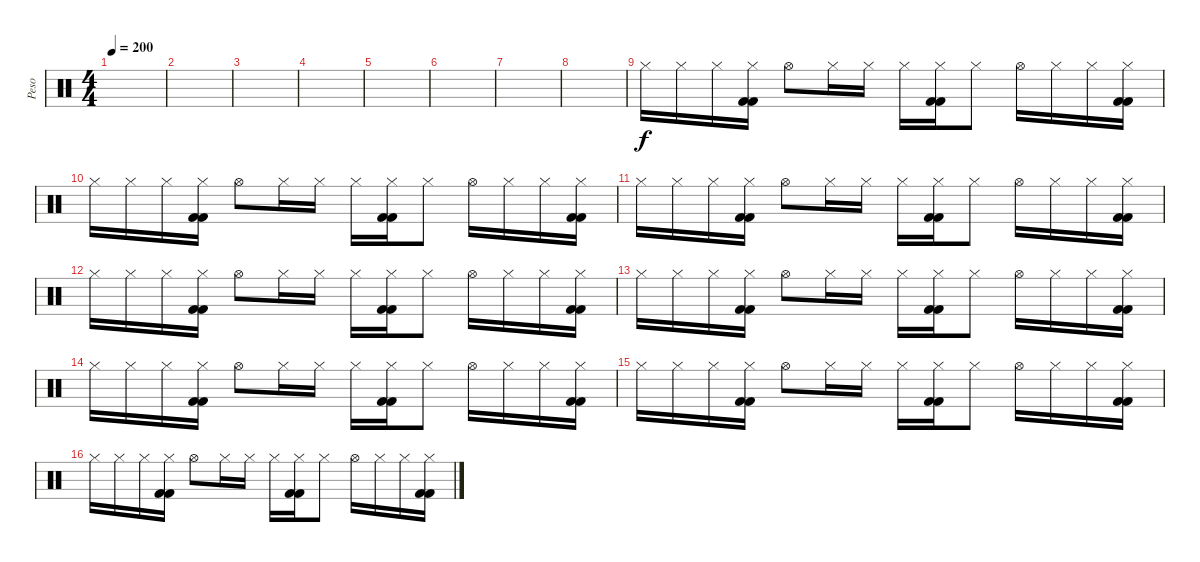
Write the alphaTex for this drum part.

\track ("Peso" "Peso") {instrument percussion}
\staff {score}
\articulation defaults
\ts (4 4)
\tempo 200
\clef neutral
\ks c
|
|
|
|
|
|
|
|
"Hi-Hat (closed)".16 "Hi-Hat (closed)".16 "Hi-Hat (closed)".16 ("Hi-Hat (closed)" "Kick (hit) 2" "Kick (hit) 2").16 "Hi-Hat (open)".8 "Hi-Hat (closed)".16 "Hi-Hat (closed)".16 "Hi-Hat (closed)".16 ("Hi-Hat (closed)" "Kick (hit) 2" "Kick (hit) 2").16 "Hi-Hat (closed)".8 "Hi-Hat (open)".16 "Hi-Hat (closed)".16 "Hi-Hat (closed)".16 ("Hi-Hat (closed)" "Kick (hit) 2" "Kick (hit) 2").16 |
"Hi-Hat (closed)".16 "Hi-Hat (closed)".16 "Hi-Hat (closed)".16 ("Hi-Hat (closed)" "Kick (hit) 2" "Kick (hit) 2").16 "Hi-Hat (open)".8 "Hi-Hat (closed)".16 "Hi-Hat (closed)".16 "Hi-Hat (closed)".16 ("Hi-Hat (closed)" "Kick (hit) 2" "Kick (hit) 2").16 "Hi-Hat (closed)".8 "Hi-Hat (open)".16 "Hi-Hat (closed)".16 "Hi-Hat (closed)".16 ("Hi-Hat (closed)" "Kick (hit) 2" "Kick (hit) 2").16 |
"Hi-Hat (closed)".16 "Hi-Hat (closed)".16 "Hi-Hat (closed)".16 ("Hi-Hat (closed)" "Kick (hit) 2" "Kick (hit) 2").16 "Hi-Hat (open)".8 "Hi-Hat (closed)".16 "Hi-Hat (closed)".16 "Hi-Hat (closed)".16 ("Hi-Hat (closed)" "Kick (hit) 2" "Kick (hit) 2").16 "Hi-Hat (closed)".8 "Hi-Hat (open)".16 "Hi-Hat (closed)".16 "Hi-Hat (closed)".16 ("Hi-Hat (closed)" "Kick (hit) 2" "Kick (hit) 2").16 |
"Hi-Hat (closed)".16 "Hi-Hat (closed)".16 "Hi-Hat (closed)".16 ("Hi-Hat (closed)" "Kick (hit) 2" "Kick (hit) 2").16 "Hi-Hat (open)".8 "Hi-Hat (closed)".16 "Hi-Hat (closed)".16 "Hi-Hat (closed)".16 ("Hi-Hat (closed)" "Kick (hit) 2" "Kick (hit) 2").16 "Hi-Hat (closed)".8 "Hi-Hat (open)".16 "Hi-Hat (closed)".16 "Hi-Hat (closed)".16 ("Hi-Hat (closed)" "Kick (hit) 2" "Kick (hit) 2").16 |
"Hi-Hat (closed)".16 "Hi-Hat (closed)".16 "Hi-Hat (closed)".16 ("Hi-Hat (closed)" "Kick (hit) 2" "Kick (hit) 2").16 "Hi-Hat (open)".8 "Hi-Hat (closed)".16 "Hi-Hat (closed)".16 "Hi-Hat (closed)".16 ("Hi-Hat (closed)" "Kick (hit) 2" "Kick (hit) 2").16 "Hi-Hat (closed)".8 "Hi-Hat (open)".16 "Hi-Hat (closed)".16 "Hi-Hat (closed)".16 ("Hi-Hat (closed)" "Kick (hit) 2" "Kick (hit) 2").16 |
"Hi-Hat (closed)".16 "Hi-Hat (closed)".16 "Hi-Hat (closed)".16 ("Hi-Hat (closed)" "Kick (hit) 2" "Kick (hit) 2").16 "Hi-Hat (open)".8 "Hi-Hat (closed)".16 "Hi-Hat (closed)".16 "Hi-Hat (closed)".16 ("Hi-Hat (closed)" "Kick (hit) 2" "Kick (hit) 2").16 "Hi-Hat (closed)".8 "Hi-Hat (open)".16 "Hi-Hat (closed)".16 "Hi-Hat (closed)".16 ("Hi-Hat (closed)" "Kick (hit) 2" "Kick (hit) 2").16 |
"Hi-Hat (closed)".16 "Hi-Hat (closed)".16 "Hi-Hat (closed)".16 ("Hi-Hat (closed)" "Kick (hit) 2" "Kick (hit) 2").16 "Hi-Hat (open)".8 "Hi-Hat (closed)".16 "Hi-Hat (closed)".16 "Hi-Hat (closed)".16 ("Hi-Hat (closed)" "Kick (hit) 2" "Kick (hit) 2").16 "Hi-Hat (closed)".8 "Hi-Hat (open)".16 "Hi-Hat (closed)".16 "Hi-Hat (closed)".16 ("Hi-Hat (closed)" "Kick (hit) 2" "Kick (hit) 2").16 |
"Hi-Hat (closed)".16 "Hi-Hat (closed)".16 "Hi-Hat (closed)".16 ("Hi-Hat (closed)" "Kick (hit) 2" "Kick (hit) 2").16 "Hi-Hat (open)".8 "Hi-Hat (closed)".16 "Hi-Hat (closed)".16 "Hi-Hat (closed)".16 ("Hi-Hat (closed)" "Kick (hit) 2" "Kick (hit) 2").16 "Hi-Hat (closed)".8 "Hi-Hat (open)".16 "Hi-Hat (closed)".16 "Hi-Hat (closed)".16 ("Hi-Hat (closed)" "Kick (hit) 2" "Kick (hit) 2").16
